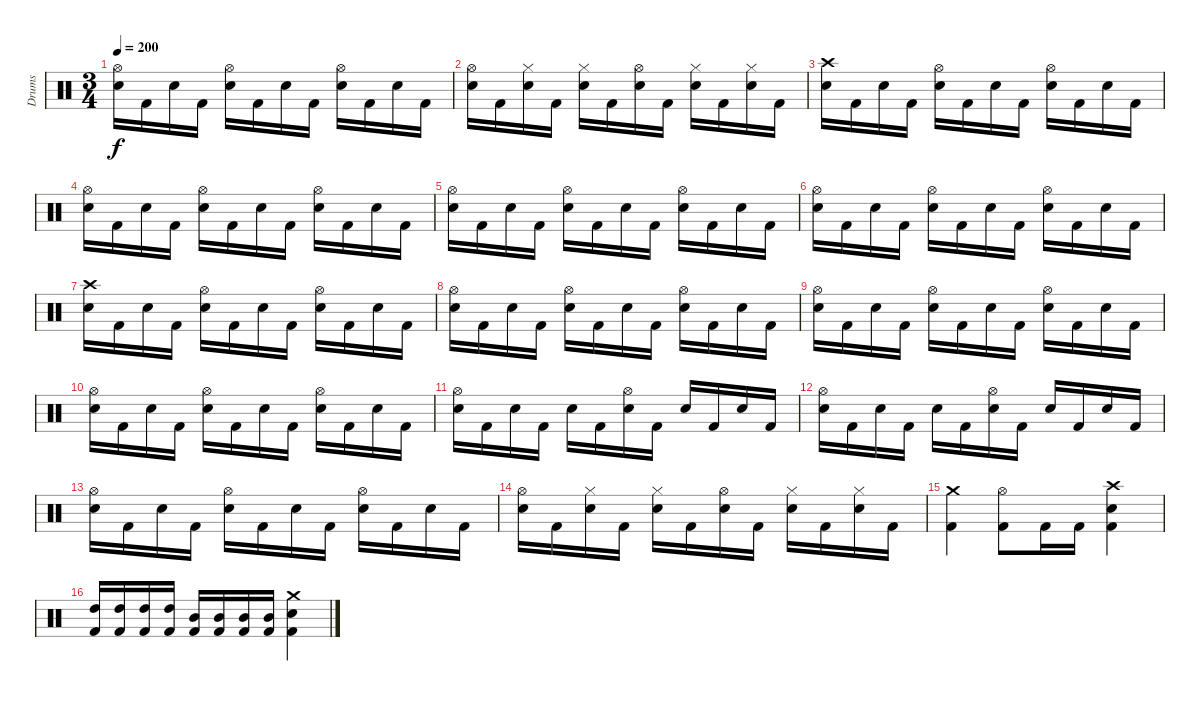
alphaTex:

\track ("Drums" "Drums") {instrument percussion}
\staff {score}
\articulation defaults
\ts (3 4)
\tempo 200
\clef neutral
\ks c
("Snare (hit) 2" "Hi-Hat (open)").16{dy f} "Kick (hit) 2".16 "Snare (hit) 2".16 "Kick (hit) 2".16 ("Snare (hit) 2" "Hi-Hat (open)").16 "Kick (hit) 2".16 "Snare (hit) 2".16 "Kick (hit) 2".16 ("Snare (hit) 2" "Hi-Hat (open)").16 "Kick (hit) 2".16 "Snare (hit) 2".16 "Kick (hit) 2".16 |
("Snare (hit) 2" "Hi-Hat (open)").16 "Kick (hit) 2".16 ("Snare (hit) 2" "Hi-Hat (closed)").16 "Kick (hit) 2".16 ("Snare (hit) 2" "Hi-Hat (closed)").16 "Kick (hit) 2".16 ("Snare (hit) 2" "Hi-Hat (open)").16 "Kick (hit) 2".16 ("Snare (hit) 2" "Hi-Hat (closed)").16 "Kick (hit) 2".16 ("Snare (hit) 2" "Hi-Hat (closed)").16 "Kick (hit) 2".16 |
("Snare (hit) 2" "Crash high (hit)").16 "Kick (hit) 2".16 "Snare (hit) 2".16 "Kick (hit) 2".16 ("Snare (hit) 2" "Hi-Hat (open)").16 "Kick (hit) 2".16 "Snare (hit) 2".16 "Kick (hit) 2".16 ("Snare (hit) 2" "Hi-Hat (open)").16 "Kick (hit) 2".16 "Snare (hit) 2".16 "Kick (hit) 2".16 |
("Snare (hit) 2" "Hi-Hat (open)").16 "Kick (hit) 2".16 "Snare (hit) 2".16 "Kick (hit) 2".16 ("Snare (hit) 2" "Hi-Hat (open)").16 "Kick (hit) 2".16 "Snare (hit) 2".16 "Kick (hit) 2".16 ("Snare (hit) 2" "Hi-Hat (open)").16 "Kick (hit) 2".16 "Snare (hit) 2".16 "Kick (hit) 2".16 |
("Snare (hit) 2" "Hi-Hat (open)").16 "Kick (hit) 2".16 "Snare (hit) 2".16 "Kick (hit) 2".16 ("Snare (hit) 2" "Hi-Hat (open)").16 "Kick (hit) 2".16 "Snare (hit) 2".16 "Kick (hit) 2".16 ("Snare (hit) 2" "Hi-Hat (open)").16 "Kick (hit) 2".16 "Snare (hit) 2".16 "Kick (hit) 2".16 |
("Snare (hit) 2" "Hi-Hat (open)").16 "Kick (hit) 2".16 "Snare (hit) 2".16 "Kick (hit) 2".16 ("Snare (hit) 2" "Hi-Hat (open)").16 "Kick (hit) 2".16 "Snare (hit) 2".16 "Kick (hit) 2".16 ("Snare (hit) 2" "Hi-Hat (open)").16 "Kick (hit) 2".16 "Snare (hit) 2".16 "Kick (hit) 2".16 |
("Snare (hit) 2" "Crash high (hit)").16 "Kick (hit) 2".16 "Snare (hit) 2".16 "Kick (hit) 2".16 ("Snare (hit) 2" "Hi-Hat (open)").16 "Kick (hit) 2".16 "Snare (hit) 2".16 "Kick (hit) 2".16 ("Snare (hit) 2" "Hi-Hat (open)").16 "Kick (hit) 2".16 "Snare (hit) 2".16 "Kick (hit) 2".16 |
("Snare (hit) 2" "Hi-Hat (open)").16 "Kick (hit) 2".16 "Snare (hit) 2".16 "Kick (hit) 2".16 ("Snare (hit) 2" "Hi-Hat (open)").16 "Kick (hit) 2".16 "Snare (hit) 2".16 "Kick (hit) 2".16 ("Snare (hit) 2" "Hi-Hat (open)").16 "Kick (hit) 2".16 "Snare (hit) 2".16 "Kick (hit) 2".16 |
("Snare (hit) 2" "Hi-Hat (open)").16 "Kick (hit) 2".16 "Snare (hit) 2".16 "Kick (hit) 2".16 ("Snare (hit) 2" "Hi-Hat (open)").16 "Kick (hit) 2".16 "Snare (hit) 2".16 "Kick (hit) 2".16 ("Snare (hit) 2" "Hi-Hat (open)").16 "Kick (hit) 2".16 "Snare (hit) 2".16 "Kick (hit) 2".16 |
("Snare (hit) 2" "Hi-Hat (open)").16 "Kick (hit) 2".16 "Snare (hit) 2".16 "Kick (hit) 2".16 ("Snare (hit) 2" "Hi-Hat (open)").16 "Kick (hit) 2".16 "Snare (hit) 2".16 "Kick (hit) 2".16 ("Snare (hit) 2" "Hi-Hat (open)").16 "Kick (hit) 2".16 "Snare (hit) 2".16 "Kick (hit) 2".16 |
("Snare (hit) 2" "Hi-Hat (open)").16 "Kick (hit) 2".16 "Snare (hit) 2".16 "Kick (hit) 2".16 "Snare (hit) 2".16 "Kick (hit) 2".16 ("Snare (hit) 2" "Hi-Hat (open)").16 "Kick (hit) 2".16 "Snare (hit) 2".16 "Kick (hit) 2".16 "Snare (hit) 2".16 "Kick (hit) 2".16 |
("Snare (hit) 2" "Hi-Hat (open)").16 "Kick (hit) 2".16 "Snare (hit) 2".16 "Kick (hit) 2".16 "Snare (hit) 2".16 "Kick (hit) 2".16 ("Snare (hit) 2" "Hi-Hat (open)").16 "Kick (hit) 2".16 "Snare (hit) 2".16 "Kick (hit) 2".16 "Snare (hit) 2".16 "Kick (hit) 2".16 |
("Snare (hit) 2" "Hi-Hat (open)").16 "Kick (hit) 2".16 "Snare (hit) 2".16 "Kick (hit) 2".16 ("Snare (hit) 2" "Hi-Hat (open)").16 "Kick (hit) 2".16 "Snare (hit) 2".16 "Kick (hit) 2".16 ("Snare (hit) 2" "Hi-Hat (open)").16 "Kick (hit) 2".16 "Snare (hit) 2".16 "Kick (hit) 2".16 |
("Snare (hit) 2" "Hi-Hat (open)").16 "Kick (hit) 2".16 ("Snare (hit) 2" "Hi-Hat (closed)").16 "Kick (hit) 2".16 ("Snare (hit) 2" "Hi-Hat (closed)").16 "Kick (hit) 2".16 ("Snare (hit) 2" "Hi-Hat (open)").16 "Kick (hit) 2".16 ("Snare (hit) 2" "Hi-Hat (closed)").16 "Kick (hit) 2".16 ("Snare (hit) 2" "Hi-Hat (closed)").16 "Kick (hit) 2".16 |
("Kick (hit) 2" "Crash medium (hit)").4 ("Kick (hit) 2" "Hi-Hat (open)").8 "Kick (hit) 2".16 "Kick (hit) 2".16 ("Kick (hit) 2" "Snare (hit) 2" "Crash high (hit)").4 |
("Kick (hit) 2" "High Tom (hit)").16 ("Kick (hit) 2" "High Tom (hit)").16 ("Kick (hit) 2" "High Tom (hit)").16 ("Kick (hit) 2" "High Tom (hit)").16 ("Kick (hit) 2" "Mid Tom (hit)").16 ("Kick (hit) 2" "Mid Tom (hit)").16 ("Kick (hit) 2" "Mid Tom (hit)").16 ("Kick (hit) 2" "Mid Tom (hit)").16 ("Kick (hit) 2" "Snare (hit) 2" "Crash medium (hit)").4
